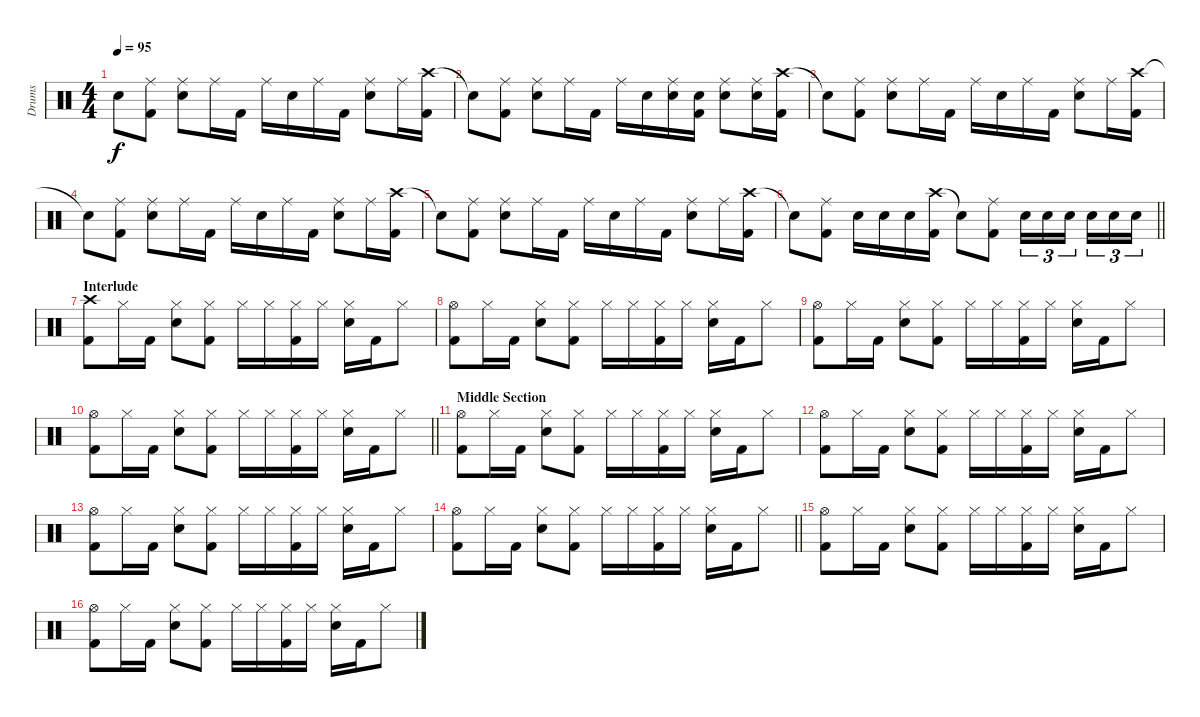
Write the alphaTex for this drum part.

\track ("Drums" "Drums") {instrument percussion}
\staff {score}
\articulation defaults
\ts (4 4)
\tempo 95
\clef neutral
\ks c "Snare (hit)"{t}.8{dy f}
("Ride (middle)" "Kick (hit) 2").8 ("Ride (middle)" "Snare (hit) 2").8 "Ride (middle)".16 "Kick (hit) 2".16 "Ride (middle)".16 "Snare (hit) 2".16 "Ride (middle)".16 "Kick (hit) 2".16 ("Ride (middle)" "Snare (hit) 2").8 "Ride (middle)".16 ("Crash high (hit)" "Kick (hit) 2").16 |
"Snare (hit)"{t}.8 ("Ride (middle)" "Kick (hit) 2").8 ("Ride (middle)" "Snare (hit) 2").8 "Ride (middle)".16 "Kick (hit) 2".16 "Ride (middle)".16 "Snare (hit) 2".16 ("Ride (middle)" "Snare (hit) 2").16 ("Snare (hit) 2" "Kick (hit) 2").16 ("Ride (middle)" "Snare (hit) 2").8 ("Ride (middle)" "Snare (hit) 2").16 ("Crash high (hit)" "Kick (hit) 2").16 |
"Snare (hit)"{t}.8 ("Ride (middle)" "Kick (hit) 2").8 ("Ride (middle)" "Snare (hit) 2").8 "Ride (middle)".16 "Kick (hit) 2".16 "Ride (middle)".16 "Snare (hit) 2".16 "Ride (middle)".16 "Kick (hit) 2".16 ("Ride (middle)" "Snare (hit) 2").8 "Ride (middle)".16 ("Crash high (hit)" "Kick (hit) 2").16 |
"Snare (hit)"{t}.8 ("Ride (middle)" "Kick (hit) 2").8 ("Ride (middle)" "Snare (hit) 2").8 "Ride (middle)".16 "Kick (hit) 2".16 "Ride (middle)".16 "Snare (hit) 2".16 "Ride (middle)".16 "Kick (hit) 2".16 ("Ride (middle)" "Snare (hit) 2").8 "Ride (middle)".16 ("Crash high (hit)" "Kick (hit) 2").16 |
"Snare (hit)"{t}.8 ("Ride (middle)" "Kick (hit) 2").8 ("Ride (middle)" "Snare (hit) 2").8 "Ride (middle)".16 "Kick (hit) 2".16 "Ride (middle)".16 "Snare (hit) 2".16 "Ride (middle)".16 "Kick (hit) 2".16 ("Ride (middle)" "Snare (hit) 2").8 "Ride (middle)".16 ("Crash high (hit)" "Kick (hit) 2").16 |
\barLineRight lightlight "Snare (hit)"{t}.8
("Ride (middle)" "Kick (hit) 2").8 "Snare (hit) 2".16 "Snare (hit) 2".16 "Snare (hit) 2".16 ("Crash high (hit)" "Kick (hit) 2").16 "Snare (hit)"{t}.8 ("Ride (middle)" "Kick (hit) 2").8 "Snare (hit) 2".16{tu (3 2)} "Snare (hit) 2".16{tu (3 2)} "Snare (hit) 2".16{tu (3 2) beam splitsecondary} "Snare (hit) 2".16{tu (3 2)} "Snare (hit) 2".16{tu (3 2)} "Snare (hit) 2".16{tu (3 2)} |
\section ("" "Interlude")
("Crash high (hit)" "Kick (hit) 2").8 "Hi-Hat (closed)".16 "Kick (hit) 2".16 ("Hi-Hat (closed)" "Snare (hit) 2").8 ("Hi-Hat (closed)" "Kick (hit) 2").8 "Hi-Hat (closed)".16 "Hi-Hat (closed)".16 ("Hi-Hat (closed)" "Kick (hit) 2").16 "Hi-Hat (closed)".16 ("Hi-Hat (closed)" "Snare (hit) 2").16 "Kick (hit) 2".16 "Hi-Hat (closed)".8 |
("Hi-Hat (open)" "Kick (hit) 2").8 "Hi-Hat (closed)".16 "Kick (hit) 2".16 ("Hi-Hat (closed)" "Snare (hit) 2").8 ("Hi-Hat (closed)" "Kick (hit) 2").8 "Hi-Hat (closed)".16 "Hi-Hat (closed)".16 ("Hi-Hat (closed)" "Kick (hit) 2").16 "Hi-Hat (closed)".16 ("Hi-Hat (closed)" "Snare (hit) 2").16 "Kick (hit) 2".16 "Hi-Hat (closed)".8 |
("Hi-Hat (open)" "Kick (hit) 2").8 "Hi-Hat (closed)".16 "Kick (hit) 2".16 ("Hi-Hat (closed)" "Snare (hit) 2").8 ("Hi-Hat (closed)" "Kick (hit) 2").8 "Hi-Hat (closed)".16 "Hi-Hat (closed)".16 ("Hi-Hat (closed)" "Kick (hit) 2").16 "Hi-Hat (closed)".16 ("Hi-Hat (closed)" "Snare (hit) 2").16 "Kick (hit) 2".16 "Hi-Hat (closed)".8 |
\barLineRight lightlight
("Hi-Hat (open)" "Kick (hit) 2").8 "Hi-Hat (closed)".16 "Kick (hit) 2".16 ("Hi-Hat (closed)" "Snare (hit) 2").8 ("Hi-Hat (closed)" "Kick (hit) 2").8 "Hi-Hat (closed)".16 "Hi-Hat (closed)".16 ("Hi-Hat (closed)" "Kick (hit) 2").16 "Hi-Hat (closed)".16 ("Hi-Hat (closed)" "Snare (hit) 2").16 "Kick (hit) 2".16 "Hi-Hat (closed)".8 |
\section ("" "Middle Section")
("Hi-Hat (open)" "Kick (hit) 2").8 "Hi-Hat (closed)".16 "Kick (hit) 2".16 ("Hi-Hat (closed)" "Snare (hit) 2").8 ("Hi-Hat (closed)" "Kick (hit) 2").8 "Hi-Hat (closed)".16 "Hi-Hat (closed)".16 ("Hi-Hat (closed)" "Kick (hit) 2").16 "Hi-Hat (closed)".16 ("Hi-Hat (closed)" "Snare (hit) 2").16 "Kick (hit) 2".16 "Hi-Hat (closed)".8 |
("Hi-Hat (open)" "Kick (hit) 2").8 "Hi-Hat (closed)".16 "Kick (hit) 2".16 ("Hi-Hat (closed)" "Snare (hit) 2").8 ("Hi-Hat (closed)" "Kick (hit) 2").8 "Hi-Hat (closed)".16 "Hi-Hat (closed)".16 ("Hi-Hat (closed)" "Kick (hit) 2").16 "Hi-Hat (closed)".16 ("Hi-Hat (closed)" "Snare (hit) 2").16 "Kick (hit) 2".16 "Hi-Hat (closed)".8 |
("Hi-Hat (open)" "Kick (hit) 2").8 "Hi-Hat (closed)".16 "Kick (hit) 2".16 ("Hi-Hat (closed)" "Snare (hit) 2").8 ("Hi-Hat (closed)" "Kick (hit) 2").8 "Hi-Hat (closed)".16 "Hi-Hat (closed)".16 ("Hi-Hat (closed)" "Kick (hit) 2").16 "Hi-Hat (closed)".16 ("Hi-Hat (closed)" "Snare (hit) 2").16 "Kick (hit) 2".16 "Hi-Hat (closed)".8 |
\barLineRight lightlight
("Hi-Hat (open)" "Kick (hit) 2").8 "Hi-Hat (closed)".16 "Kick (hit) 2".16 ("Hi-Hat (closed)" "Snare (hit) 2").8 ("Hi-Hat (closed)" "Kick (hit) 2").8 "Hi-Hat (closed)".16 "Hi-Hat (closed)".16 ("Hi-Hat (closed)" "Kick (hit) 2").16 "Hi-Hat (closed)".16 ("Hi-Hat (closed)" "Snare (hit) 2").16 "Kick (hit) 2".16 "Hi-Hat (closed)".8 |
("Hi-Hat (open)" "Kick (hit) 2").8 "Hi-Hat (closed)".16 "Kick (hit) 2".16 ("Hi-Hat (closed)" "Snare (hit) 2").8 ("Hi-Hat (closed)" "Kick (hit) 2").8 "Hi-Hat (closed)".16 "Hi-Hat (closed)".16 ("Hi-Hat (closed)" "Kick (hit) 2").16 "Hi-Hat (closed)".16 ("Hi-Hat (closed)" "Snare (hit) 2").16 "Kick (hit) 2".16 "Hi-Hat (closed)".8 |
("Hi-Hat (open)" "Kick (hit) 2").8 "Hi-Hat (closed)".16 "Kick (hit) 2".16 ("Hi-Hat (closed)" "Snare (hit) 2").8 ("Hi-Hat (closed)" "Kick (hit) 2").8 "Hi-Hat (closed)".16 "Hi-Hat (closed)".16 ("Hi-Hat (closed)" "Kick (hit) 2").16 "Hi-Hat (closed)".16 ("Hi-Hat (closed)" "Snare (hit) 2").16 "Kick (hit) 2".16 "Hi-Hat (closed)".8
